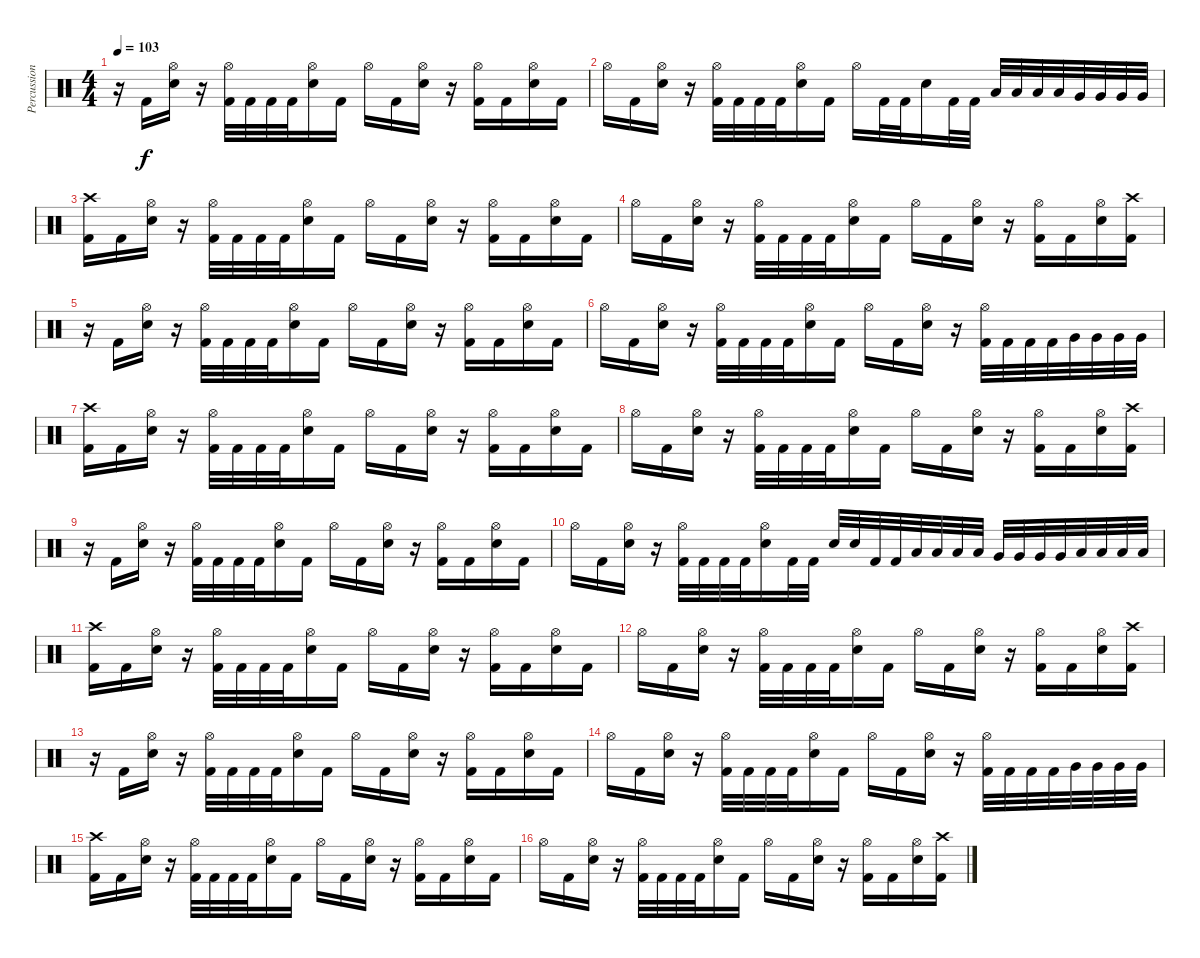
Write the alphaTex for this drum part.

\track ("Percussion" "Percussion") {instrument percussion}
\staff {score}
\articulation defaults
\ts (4 4)
\tempo 103
\clef neutral
\ks c
r.16{dy f} "Kick (hit) 2".16 ("Hi-Hat (open)" "Snare (hit) 2").16 r.16 ("Hi-Hat (open)" "Kick (hit) 2").32 "Kick (hit) 2".32 "Kick (hit) 2".32 "Kick (hit) 2".32 ("Hi-Hat (open)" "Snare (hit) 2").16 "Kick (hit) 2".16 "Hi-Hat (open)".16 "Kick (hit) 2".16 ("Hi-Hat (open)" "Snare (hit) 2").16 r.16 ("Hi-Hat (open)" "Kick (hit) 2").16 "Kick (hit) 2".16 ("Hi-Hat (open)" "Snare (hit) 2").16 "Kick (hit) 2".16 |
"Hi-Hat (open)".16 "Kick (hit) 2".16 ("Hi-Hat (open)" "Snare (hit) 2").16 r.16 ("Hi-Hat (open)" "Kick (hit) 2").32 "Kick (hit) 2".32 "Kick (hit) 2".32 "Kick (hit) 2".32 ("Hi-Hat (open)" "Snare (hit) 2").16 "Kick (hit) 2".16 "Hi-Hat (open)".16 "Kick (hit) 2".32 "Kick (hit) 2".32 "Snare (hit) 2".16 "Kick (hit) 2".32 "Kick (hit) 2".32 "Low Tom (hit)".32 "Low Tom (hit)".32 "Low Tom (hit)".32 "Low Tom (hit)".32 "Very Low Tom (hit)".32 "Very Low Tom (hit)".32 "Very Low Tom (hit)".32 "Very Low Tom (hit)".32 |
("Crash high (hit)" "Kick (hit) 2").16 "Kick (hit) 2".16 ("Hi-Hat (open)" "Snare (hit) 2").16 r.16 ("Hi-Hat (open)" "Kick (hit) 2").32 "Kick (hit) 2".32 "Kick (hit) 2".32 "Kick (hit) 2".32 ("Hi-Hat (open)" "Snare (hit) 2").16 "Kick (hit) 2".16 "Hi-Hat (open)".16 "Kick (hit) 2".16 ("Hi-Hat (open)" "Snare (hit) 2").16 r.16 ("Hi-Hat (open)" "Kick (hit) 2").16 "Kick (hit) 2".16 ("Hi-Hat (open)" "Snare (hit) 2").16 "Kick (hit) 2".16 |
"Hi-Hat (open)".16 "Kick (hit) 2".16 ("Hi-Hat (open)" "Snare (hit) 2").16 r.16 ("Hi-Hat (open)" "Kick (hit) 2").32 "Kick (hit) 2".32 "Kick (hit) 2".32 "Kick (hit) 2".32 ("Hi-Hat (open)" "Snare (hit) 2").16 "Kick (hit) 2".16 "Hi-Hat (open)".16 "Kick (hit) 2".16 ("Hi-Hat (open)" "Snare (hit) 2").16 r.16 ("Hi-Hat (open)" "Kick (hit) 2").16 "Kick (hit) 2".16 ("Hi-Hat (open)" "Snare (hit) 2").16 ("Crash high (hit)" "Kick (hit) 2").16 |
r.16 "Kick (hit) 2".16 ("Hi-Hat (open)" "Snare (hit) 2").16 r.16 ("Hi-Hat (open)" "Kick (hit) 2").32 "Kick (hit) 2".32 "Kick (hit) 2".32 "Kick (hit) 2".32 ("Hi-Hat (open)" "Snare (hit) 2").16 "Kick (hit) 2".16 "Hi-Hat (open)".16 "Kick (hit) 2".16 ("Hi-Hat (open)" "Snare (hit) 2").16 r.16 ("Hi-Hat (open)" "Kick (hit) 2").16 "Kick (hit) 2".16 ("Hi-Hat (open)" "Snare (hit) 2").16 "Kick (hit) 2".16 |
"Hi-Hat (open)".16 "Kick (hit) 2".16 ("Hi-Hat (open)" "Snare (hit) 2").16 r.16 ("Hi-Hat (open)" "Kick (hit) 2").32 "Kick (hit) 2".32 "Kick (hit) 2".32 "Kick (hit) 2".32 ("Hi-Hat (open)" "Snare (hit) 2").16 "Kick (hit) 2".16 "Hi-Hat (open)".16 "Kick (hit) 2".16 ("Hi-Hat (open)" "Snare (hit) 2").16 r.16 ("Hi-Hat (open)" "Kick (hit) 2").32 "Kick (hit) 2".32 "Kick (hit) 2".32 "Kick (hit) 2".32 "Very Low Tom (hit)".32 "Very Low Tom (hit)".32 "Very Low Tom (hit)".32 "Very Low Tom (hit)".32 |
("Crash high (hit)" "Kick (hit) 2").16 "Kick (hit) 2".16 ("Hi-Hat (open)" "Snare (hit) 2").16 r.16 ("Hi-Hat (open)" "Kick (hit) 2").32 "Kick (hit) 2".32 "Kick (hit) 2".32 "Kick (hit) 2".32 ("Hi-Hat (open)" "Snare (hit) 2").16 "Kick (hit) 2".16 "Hi-Hat (open)".16 "Kick (hit) 2".16 ("Hi-Hat (open)" "Snare (hit) 2").16 r.16 ("Hi-Hat (open)" "Kick (hit) 2").16 "Kick (hit) 2".16 ("Hi-Hat (open)" "Snare (hit) 2").16 "Kick (hit) 2".16 |
"Hi-Hat (open)".16 "Kick (hit) 2".16 ("Hi-Hat (open)" "Snare (hit) 2").16 r.16 ("Hi-Hat (open)" "Kick (hit) 2").32 "Kick (hit) 2".32 "Kick (hit) 2".32 "Kick (hit) 2".32 ("Hi-Hat (open)" "Snare (hit) 2").16 "Kick (hit) 2".16 "Hi-Hat (open)".16 "Kick (hit) 2".16 ("Hi-Hat (open)" "Snare (hit) 2").16 r.16 ("Hi-Hat (open)" "Kick (hit) 2").16 "Kick (hit) 2".16 ("Hi-Hat (open)" "Snare (hit) 2").16 ("Crash high (hit)" "Kick (hit) 2").16 |
r.16 "Kick (hit) 2".16 ("Hi-Hat (open)" "Snare (hit) 2").16 r.16 ("Hi-Hat (open)" "Kick (hit) 2").32 "Kick (hit) 2".32 "Kick (hit) 2".32 "Kick (hit) 2".32 ("Hi-Hat (open)" "Snare (hit) 2").16 "Kick (hit) 2".16 "Hi-Hat (open)".16 "Kick (hit) 2".16 ("Hi-Hat (open)" "Snare (hit) 2").16 r.16 ("Hi-Hat (open)" "Kick (hit) 2").16 "Kick (hit) 2".16 ("Hi-Hat (open)" "Snare (hit) 2").16 "Kick (hit) 2".16 |
"Hi-Hat (open)".16 "Kick (hit) 2".16 ("Hi-Hat (open)" "Snare (hit) 2").16 r.16 ("Hi-Hat (open)" "Kick (hit) 2").32 "Kick (hit) 2".32 "Kick (hit) 2".32 "Kick (hit) 2".32 ("Hi-Hat (open)" "Snare (hit) 2").16 "Kick (hit) 2".32 "Kick (hit) 2".32 "Snare (hit) 2".32 "Snare (hit) 2".32 "Kick (hit) 2".32 "Kick (hit) 2".32 "Low Tom (hit)".32 "Low Tom (hit)".32 "Low Tom (hit)".32 "Low Tom (hit)".32 "Very Low Tom (hit)".32 "Very Low Tom (hit)".32 "Very Low Tom (hit)".32 "Very Low Tom (hit)".32 "Low Floor Tom (hit)".32 "Low Floor Tom (hit)".32 "Low Floor Tom (hit)".32 "Low Floor Tom (hit)".32 |
("Crash high (hit)" "Kick (hit) 2").16 "Kick (hit) 2".16 ("Hi-Hat (open)" "Snare (hit) 2").16 r.16 ("Hi-Hat (open)" "Kick (hit) 2").32 "Kick (hit) 2".32 "Kick (hit) 2".32 "Kick (hit) 2".32 ("Hi-Hat (open)" "Snare (hit) 2").16 "Kick (hit) 2".16 "Hi-Hat (open)".16 "Kick (hit) 2".16 ("Hi-Hat (open)" "Snare (hit) 2").16 r.16 ("Hi-Hat (open)" "Kick (hit) 2").16 "Kick (hit) 2".16 ("Hi-Hat (open)" "Snare (hit) 2").16 "Kick (hit) 2".16 |
"Hi-Hat (open)".16 "Kick (hit) 2".16 ("Hi-Hat (open)" "Snare (hit) 2").16 r.16 ("Hi-Hat (open)" "Kick (hit) 2").32 "Kick (hit) 2".32 "Kick (hit) 2".32 "Kick (hit) 2".32 ("Hi-Hat (open)" "Snare (hit) 2").16 "Kick (hit) 2".16 "Hi-Hat (open)".16 "Kick (hit) 2".16 ("Hi-Hat (open)" "Snare (hit) 2").16 r.16 ("Hi-Hat (open)" "Kick (hit) 2").16 "Kick (hit) 2".16 ("Hi-Hat (open)" "Snare (hit) 2").16 ("Crash high (hit)" "Kick (hit) 2").16 |
r.16 "Kick (hit) 2".16 ("Hi-Hat (open)" "Snare (hit) 2").16 r.16 ("Hi-Hat (open)" "Kick (hit) 2").32 "Kick (hit) 2".32 "Kick (hit) 2".32 "Kick (hit) 2".32 ("Hi-Hat (open)" "Snare (hit) 2").16 "Kick (hit) 2".16 "Hi-Hat (open)".16 "Kick (hit) 2".16 ("Hi-Hat (open)" "Snare (hit) 2").16 r.16 ("Hi-Hat (open)" "Kick (hit) 2").16 "Kick (hit) 2".16 ("Hi-Hat (open)" "Snare (hit) 2").16 "Kick (hit) 2".16 |
"Hi-Hat (open)".16 "Kick (hit) 2".16 ("Hi-Hat (open)" "Snare (hit) 2").16 r.16 ("Hi-Hat (open)" "Kick (hit) 2").32 "Kick (hit) 2".32 "Kick (hit) 2".32 "Kick (hit) 2".32 ("Hi-Hat (open)" "Snare (hit) 2").16 "Kick (hit) 2".16 "Hi-Hat (open)".16 "Kick (hit) 2".16 ("Hi-Hat (open)" "Snare (hit) 2").16 r.16 ("Hi-Hat (open)" "Kick (hit) 2").32 "Kick (hit) 2".32 "Kick (hit) 2".32 "Kick (hit) 2".32 "Very Low Tom (hit)".32 "Very Low Tom (hit)".32 "Very Low Tom (hit)".32 "Very Low Tom (hit)".32 |
("Crash high (hit)" "Kick (hit) 2").16 "Kick (hit) 2".16 ("Hi-Hat (open)" "Snare (hit) 2").16 r.16 ("Hi-Hat (open)" "Kick (hit) 2").32 "Kick (hit) 2".32 "Kick (hit) 2".32 "Kick (hit) 2".32 ("Hi-Hat (open)" "Snare (hit) 2").16 "Kick (hit) 2".16 "Hi-Hat (open)".16 "Kick (hit) 2".16 ("Hi-Hat (open)" "Snare (hit) 2").16 r.16 ("Hi-Hat (open)" "Kick (hit) 2").16 "Kick (hit) 2".16 ("Hi-Hat (open)" "Snare (hit) 2").16 "Kick (hit) 2".16 |
"Hi-Hat (open)".16 "Kick (hit) 2".16 ("Hi-Hat (open)" "Snare (hit) 2").16 r.16 ("Hi-Hat (open)" "Kick (hit) 2").32 "Kick (hit) 2".32 "Kick (hit) 2".32 "Kick (hit) 2".32 ("Hi-Hat (open)" "Snare (hit) 2").16 "Kick (hit) 2".16 "Hi-Hat (open)".16 "Kick (hit) 2".16 ("Hi-Hat (open)" "Snare (hit) 2").16 r.16 ("Hi-Hat (open)" "Kick (hit) 2").16 "Kick (hit) 2".16 ("Hi-Hat (open)" "Snare (hit) 2").16 ("Crash high (hit)" "Kick (hit) 2").16
